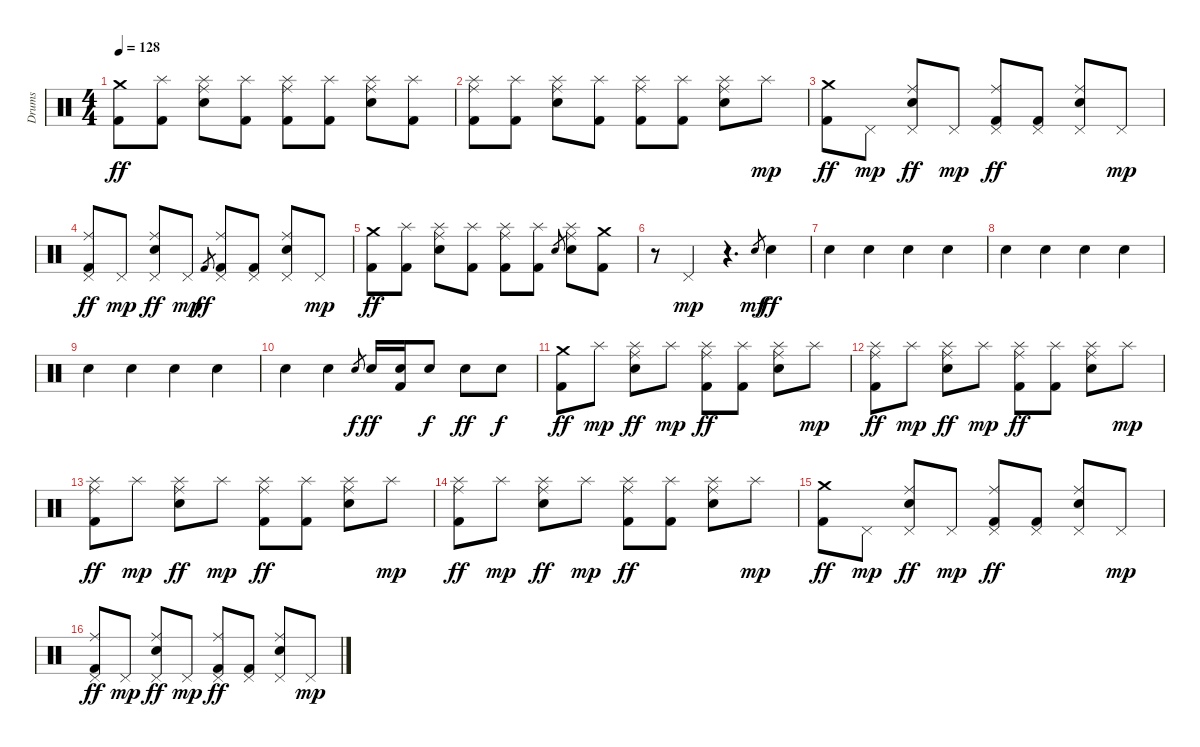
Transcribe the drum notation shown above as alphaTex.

\track ("Drums" "Drums") {instrument percussion}
\staff {score}
\articulation defaults
\ts (4 4)
\tempo 128
\clef neutral
\ks c
("Crash medium (hit)" "Kick (hit) 2").8{dy ff} ("Splash (hit)" "Kick (hit) 2").8 ("Ride (middle)" "Splash (hit)" "Electric Snare (hit)").8 ("Splash (hit)" "Kick (hit) 2").8 ("Ride (middle)" "Splash (hit)" "Kick (hit) 2").8 ("Splash (hit)" "Kick (hit) 2").8 ("Ride (middle)" "Splash (hit)" "Electric Snare (hit)").8 ("Splash (hit)" "Kick (hit) 2").8 |
("Ride (middle)" "Splash (hit)" "Kick (hit) 2").8 ("Splash (hit)" "Kick (hit) 2").8 ("Ride (middle)" "Splash (hit)" "Electric Snare (hit)").8 ("Splash (hit)" "Kick (hit) 2").8 ("Ride (middle)" "Splash (hit)" "Kick (hit) 2").8 ("Splash (hit)" "Kick (hit) 2").8 ("Ride (middle)" "Splash (hit)" "Electric Snare (hit)").8 "Splash (hit)".8{dy mp} |
("Crash medium (hit)" "Kick (hit) 2").8{dy ff} "Pedal Hi-Hat (hit)".8{dy mp} ("Ride (middle)" "Pedal Hi-Hat (hit)" "Electric Snare (hit)").8{dy ff} "Pedal Hi-Hat (hit)".8{dy mp} ("Ride (middle)" "Pedal Hi-Hat (hit)" "Kick (hit) 2").8{dy ff} ("Pedal Hi-Hat (hit)" "Kick (hit) 2").8 ("Ride (middle)" "Pedal Hi-Hat (hit)" "Electric Snare (hit)").8 "Pedal Hi-Hat (hit)".8{dy mp} |
("Ride (middle)" "Pedal Hi-Hat (hit)" "Kick (hit) 2").8{dy ff} "Pedal Hi-Hat (hit)".8{dy mp} ("Ride (middle)" "Pedal Hi-Hat (hit)" "Electric Snare (hit)").8{dy ff} "Pedal Hi-Hat (hit)".8{dy mp} "Kick (hit) 2".8{gr dy ff} ("Ride (middle)" "Pedal Hi-Hat (hit)" "Kick (hit) 2").8 ("Pedal Hi-Hat (hit)" "Kick (hit) 2").8 ("Ride (middle)" "Pedal Hi-Hat (hit)" "Electric Snare (hit)").8 "Pedal Hi-Hat (hit)".8{dy mp} |
("Crash medium (hit)" "Kick (hit) 2").8{dy ff} ("Splash (hit)" "Kick (hit) 2").8 ("Ride (middle)" "Splash (hit)" "Electric Snare (hit)").8 ("Splash (hit)" "Kick (hit) 2").8 ("Ride (middle)" "Splash (hit)" "Kick (hit) 2").8 ("Splash (hit)" "Kick (hit) 2").8 "Electric Snare (hit)".8{gr} ("Ride (middle)" "Splash (hit)" "Electric Snare (hit)").8 ("Crash medium (hit)" "Kick (hit) 2").8 |
r.8 "Pedal Hi-Hat (hit)".4{dy mp} r.4{d} "Electric Snare (hit)".8{gr dy mf} "Electric Snare (hit)".4{dy ff} |
"Electric Snare (hit)".4 "Electric Snare (hit)".4 "Electric Snare (hit)".4 "Electric Snare (hit)".4 |
"Electric Snare (hit)".4 "Electric Snare (hit)".4 "Electric Snare (hit)".4 "Electric Snare (hit)".4 |
"Electric Snare (hit)".4 "Electric Snare (hit)".4 "Electric Snare (hit)".4 "Electric Snare (hit)".4 |
"Electric Snare (hit)".4 "Electric Snare (hit)".4 "Electric Snare (hit)".8{gr dy f} "Electric Snare (hit)".16{dy ff} ("Electric Snare (hit)" "Kick (hit) 2").16 "Electric Snare (hit)".8{dy f} "Electric Snare (hit)".8{dy ff} "Electric Snare (hit)".8{dy f} |
("Crash medium (hit)" "Kick (hit) 2").8{dy ff} "Splash (hit)".8{dy mp} ("Ride (middle)" "Splash (hit)" "Electric Snare (hit)").8{dy ff} "Splash (hit)".8{dy mp} ("Ride (middle)" "Splash (hit)" "Kick (hit) 2").8{dy ff} ("Splash (hit)" "Kick (hit) 2").8 ("Ride (middle)" "Splash (hit)" "Electric Snare (hit)").8 "Splash (hit)".8{dy mp} |
("Ride (middle)" "Splash (hit)" "Kick (hit) 2").8{dy ff} "Splash (hit)".8{dy mp} ("Ride (middle)" "Splash (hit)" "Electric Snare (hit)").8{dy ff} "Splash (hit)".8{dy mp} ("Ride (middle)" "Splash (hit)" "Kick (hit) 2").8{dy ff} ("Splash (hit)" "Kick (hit) 2").8 ("Ride (middle)" "Splash (hit)" "Electric Snare (hit)").8 "Splash (hit)".8{dy mp} |
("Ride (middle)" "Splash (hit)" "Kick (hit) 2").8{dy ff} "Splash (hit)".8{dy mp} ("Ride (middle)" "Splash (hit)" "Electric Snare (hit)").8{dy ff} "Splash (hit)".8{dy mp} ("Ride (middle)" "Splash (hit)" "Kick (hit) 2").8{dy ff} ("Splash (hit)" "Kick (hit) 2").8 ("Ride (middle)" "Splash (hit)" "Electric Snare (hit)").8 "Splash (hit)".8{dy mp} |
("Ride (middle)" "Splash (hit)" "Kick (hit) 2").8{dy ff} "Splash (hit)".8{dy mp} ("Ride (middle)" "Splash (hit)" "Electric Snare (hit)").8{dy ff} "Splash (hit)".8{dy mp} ("Ride (middle)" "Splash (hit)" "Kick (hit) 2").8{dy ff} ("Splash (hit)" "Kick (hit) 2").8 ("Ride (middle)" "Splash (hit)" "Electric Snare (hit)").8 "Splash (hit)".8{dy mp} |
("Crash medium (hit)" "Kick (hit) 2").8{dy ff} "Pedal Hi-Hat (hit)".8{dy mp} ("Ride (middle)" "Pedal Hi-Hat (hit)" "Electric Snare (hit)").8{dy ff} "Pedal Hi-Hat (hit)".8{dy mp} ("Ride (middle)" "Pedal Hi-Hat (hit)" "Kick (hit) 2").8{dy ff} ("Pedal Hi-Hat (hit)" "Kick (hit) 2").8 ("Ride (middle)" "Pedal Hi-Hat (hit)" "Electric Snare (hit)").8 "Pedal Hi-Hat (hit)".8{dy mp} |
("Ride (middle)" "Pedal Hi-Hat (hit)" "Kick (hit) 2").8{dy ff} "Pedal Hi-Hat (hit)".8{dy mp} ("Ride (middle)" "Pedal Hi-Hat (hit)" "Electric Snare (hit)").8{dy ff} "Pedal Hi-Hat (hit)".8{dy mp} ("Ride (middle)" "Pedal Hi-Hat (hit)" "Kick (hit) 2").8{dy ff} ("Pedal Hi-Hat (hit)" "Kick (hit) 2").8 ("Ride (middle)" "Pedal Hi-Hat (hit)" "Electric Snare (hit)").8 "Pedal Hi-Hat (hit)".8{dy mp}
